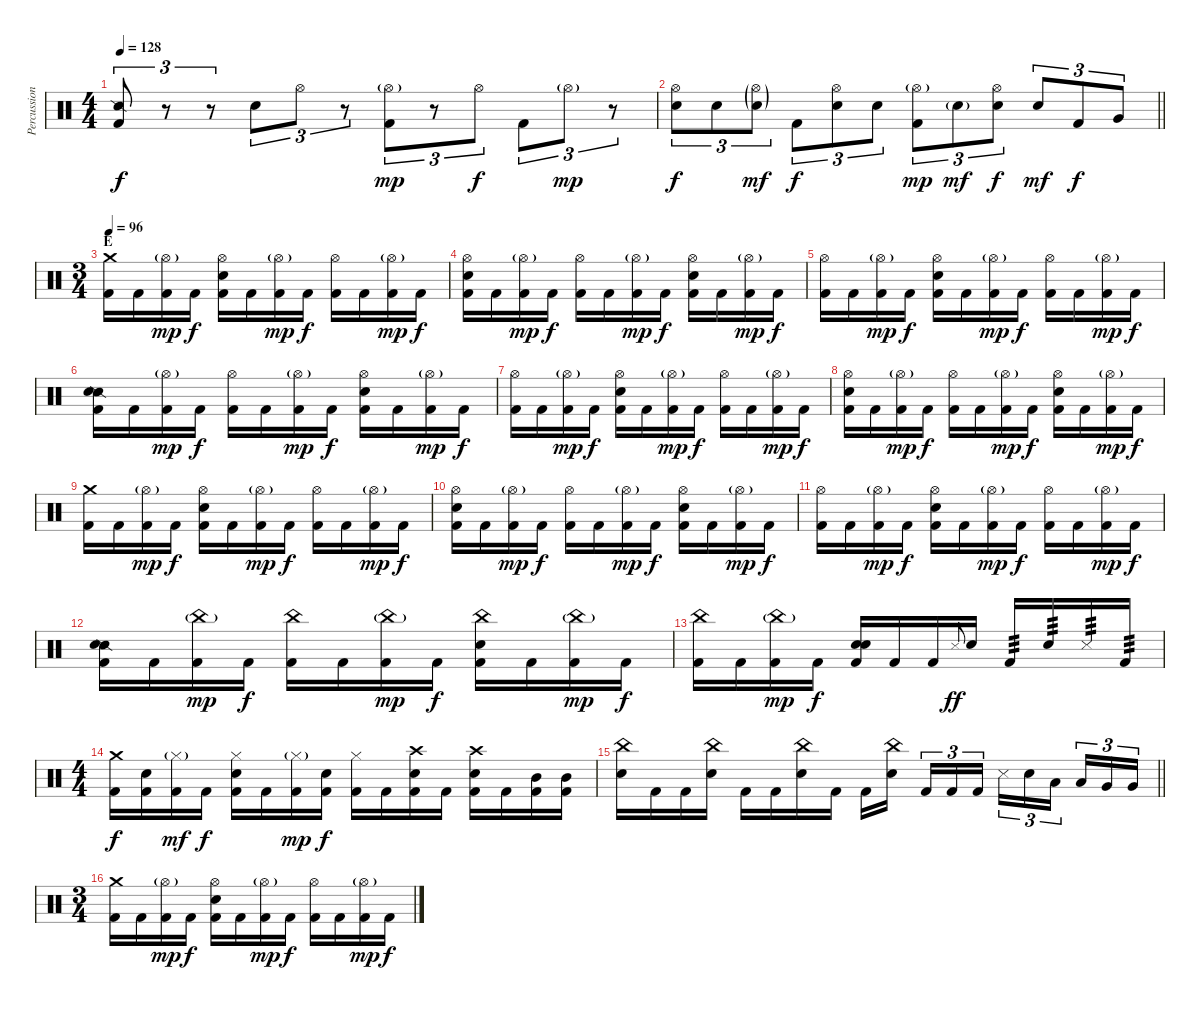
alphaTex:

\track ("Percussion" "Percussion") {instrument percussion}
\staff {score}
\articulation defaults
\ts (4 4)
\tempo 128
\clef neutral
\ks c
("Snare (side stick) 2" "Kick (hit) 2").8{tu (3 2) dy f} r.8{tu (3 2)} r.8{tu (3 2)} "Snare (hit) 2".8{tu (3 2)} "Hi-Hat (open)".8{tu (3 2)} r.8{tu (3 2)} ("Hi-Hat (open)"{g} "Kick (hit) 2").8{tu (3 2) dy mp} r.8{tu (3 2)} "Hi-Hat (open)".8{tu (3 2) dy f} "Kick (hit) 2".8{tu (3 2)} "Hi-Hat (open)"{g}.8{tu (3 2) dy mp} r.8{tu (3 2)} |
\barLineRight lightlight
("Hi-Hat (open)" "Snare (hit) 2").8{tu (3 2) dy f} "Snare (hit) 2".8{tu (3 2)} ("Hi-Hat (open)"{g} "Snare (hit) 2"{g}).8{tu (3 2) dy mf} "Kick (hit) 2".8{tu (3 2) dy f} ("Hi-Hat (open)" "Snare (hit) 2").8{tu (3 2)} "Snare (hit) 2".8{tu (3 2)} ("Hi-Hat (open)"{g} "Kick (hit) 2").8{tu (3 2) dy mp} "Snare (hit) 2"{g}.8{tu (3 2) dy mf} ("Hi-Hat (open)" "Snare (hit) 2").8{tu (3 2) dy f} "Snare (hit) 2".8{tu (3 2) dy mf} "Kick (hit) 2".8{tu (3 2) dy f} "Very Low Tom (hit)".8{tu (3 2)} |
\ts (3 4)
\section ("" "E")
\tempo 96
("Crash medium (hit)" "Kick (hit) 2").16 "Kick (hit) 2".16 ("Hi-Hat (open)"{g} "Kick (hit) 2").16{dy mp} "Kick (hit) 2".16{dy f} ("Hi-Hat (open)" "Snare (hit) 2" "Kick (hit) 2").16 "Kick (hit) 2".16 ("Hi-Hat (open)"{g} "Kick (hit) 2").16{dy mp} "Kick (hit) 2".16{dy f} ("Hi-Hat (open)" "Kick (hit) 2").16 "Kick (hit) 2".16 ("Hi-Hat (open)"{g} "Kick (hit) 2").16{dy mp} "Kick (hit) 2".16{dy f} |
("Hi-Hat (open)" "Snare (hit) 2" "Kick (hit) 2").16 "Kick (hit) 2".16 ("Hi-Hat (open)"{g} "Kick (hit) 2").16{dy mp} "Kick (hit) 2".16{dy f} ("Hi-Hat (open)" "Kick (hit) 2").16 "Kick (hit) 2".16 ("Hi-Hat (open)"{g} "Kick (hit) 2").16{dy mp} "Kick (hit) 2".16{dy f} ("Hi-Hat (open)" "Snare (hit) 2" "Kick (hit) 2").16 "Kick (hit) 2".16 ("Hi-Hat (open)"{g} "Kick (hit) 2").16{dy mp} "Kick (hit) 2".16{dy f} |
("Hi-Hat (open)" "Kick (hit) 2").16 "Kick (hit) 2".16 ("Hi-Hat (open)"{g} "Kick (hit) 2").16{dy mp} "Kick (hit) 2".16{dy f} ("Hi-Hat (open)" "Snare (hit) 2" "Kick (hit) 2").16 "Kick (hit) 2".16 ("Hi-Hat (open)"{g} "Kick (hit) 2").16{dy mp} "Kick (hit) 2".16{dy f} ("Hi-Hat (open)" "Kick (hit) 2").16 "Kick (hit) 2".16 ("Hi-Hat (open)"{g} "Kick (hit) 2").16{dy mp} "Kick (hit) 2".16{dy f} |
("Snare (side stick) 2" "Snare (hit) 2" "Kick (hit) 2").16 "Kick (hit) 2".16 ("Hi-Hat (open)"{g} "Kick (hit) 2").16{dy mp} "Kick (hit) 2".16{dy f} ("Hi-Hat (open)" "Kick (hit) 2").16 "Kick (hit) 2".16 ("Hi-Hat (open)"{g} "Kick (hit) 2").16{dy mp} "Kick (hit) 2".16{dy f} ("Hi-Hat (open)" "Snare (hit) 2" "Kick (hit) 2").16 "Kick (hit) 2".16 ("Hi-Hat (open)"{g} "Kick (hit) 2").16{dy mp} "Kick (hit) 2".16{dy f} |
("Hi-Hat (open)" "Kick (hit) 2").16 "Kick (hit) 2".16 ("Hi-Hat (open)"{g} "Kick (hit) 2").16{dy mp} "Kick (hit) 2".16{dy f} ("Hi-Hat (open)" "Snare (hit) 2" "Kick (hit) 2").16 "Kick (hit) 2".16 ("Hi-Hat (open)"{g} "Kick (hit) 2").16{dy mp} "Kick (hit) 2".16{dy f} ("Hi-Hat (open)" "Kick (hit) 2").16 "Kick (hit) 2".16 ("Hi-Hat (open)"{g} "Kick (hit) 2").16{dy mp} "Kick (hit) 2".16{dy f} |
("Hi-Hat (open)" "Snare (hit) 2" "Kick (hit) 2").16 "Kick (hit) 2".16 ("Hi-Hat (open)"{g} "Kick (hit) 2").16{dy mp} "Kick (hit) 2".16{dy f} ("Hi-Hat (open)" "Kick (hit) 2").16 "Kick (hit) 2".16 ("Hi-Hat (open)"{g} "Kick (hit) 2").16{dy mp} "Kick (hit) 2".16{dy f} ("Hi-Hat (open)" "Snare (hit) 2" "Kick (hit) 2").16 "Kick (hit) 2".16 ("Hi-Hat (open)"{g} "Kick (hit) 2").16{dy mp} "Kick (hit) 2".16{dy f} |
("Crash medium (hit)" "Kick (hit) 2").16 "Kick (hit) 2".16 ("Hi-Hat (open)"{g} "Kick (hit) 2").16{dy mp} "Kick (hit) 2".16{dy f} ("Hi-Hat (open)" "Snare (hit) 2" "Kick (hit) 2").16 "Kick (hit) 2".16 ("Hi-Hat (open)"{g} "Kick (hit) 2").16{dy mp} "Kick (hit) 2".16{dy f} ("Hi-Hat (open)" "Kick (hit) 2").16 "Kick (hit) 2".16 ("Hi-Hat (open)"{g} "Kick (hit) 2").16{dy mp} "Kick (hit) 2".16{dy f} |
("Hi-Hat (open)" "Snare (hit) 2" "Kick (hit) 2").16 "Kick (hit) 2".16 ("Hi-Hat (open)"{g} "Kick (hit) 2").16{dy mp} "Kick (hit) 2".16{dy f} ("Hi-Hat (open)" "Kick (hit) 2").16 "Kick (hit) 2".16 ("Hi-Hat (open)"{g} "Kick (hit) 2").16{dy mp} "Kick (hit) 2".16{dy f} ("Hi-Hat (open)" "Snare (hit) 2" "Kick (hit) 2").16 "Kick (hit) 2".16 ("Hi-Hat (open)"{g} "Kick (hit) 2").16{dy mp} "Kick (hit) 2".16{dy f} |
("Hi-Hat (open)" "Kick (hit) 2").16 "Kick (hit) 2".16 ("Hi-Hat (open)"{g} "Kick (hit) 2").16{dy mp} "Kick (hit) 2".16{dy f} ("Hi-Hat (open)" "Snare (hit) 2" "Kick (hit) 2").16 "Kick (hit) 2".16 ("Hi-Hat (open)"{g} "Kick (hit) 2").16{dy mp} "Kick (hit) 2".16{dy f} ("Hi-Hat (open)" "Kick (hit) 2").16 "Kick (hit) 2".16 ("Hi-Hat (open)"{g} "Kick (hit) 2").16{dy mp} "Kick (hit) 2".16{dy f} |
("Snare (side stick) 2" "Snare (hit) 2" "Kick (hit) 2").16 "Kick (hit) 2".16 ("China (hit)"{g} "Kick (hit) 2").16{dy mp} "Kick (hit) 2".16{dy f} ("China (hit)" "Kick (hit) 2").16 "Kick (hit) 2".16 ("China (hit)"{g} "Kick (hit) 2").16{dy mp} "Kick (hit) 2".16{dy f} ("China (hit)" "Snare (hit) 2" "Kick (hit) 2").16 "Kick (hit) 2".16 ("China (hit)"{g} "Kick (hit) 2").16{dy mp} "Kick (hit) 2".16{dy f} |
("China (hit)" "Kick (hit) 2").16 "Kick (hit) 2".16 ("China (hit)"{g} "Kick (hit) 2").16{dy mp} "Kick (hit) 2".16{dy f} ("Snare (hit)" "Snare (hit) 2" "Kick (hit) 2").16 "Kick (hit) 2".16 "Kick (hit) 2".16 "Metronome (hit)".8{gr onbeat dy ff} "Snare (hit) 2".16 "Kick (hit) 2".16{tp 3} "Snare (hit) 2".16{tp 3} "Metronome (hit)".16{tp 3} "Kick (hit) 2".16{tp 3} |
\ts (4 4)
("Crash medium (hit)" "Kick (hit) 2").16{dy f} ("Snare (hit) 2" "Kick (hit) 2").16 ("Hi-Hat (closed)"{g} "Kick (hit) 2").16{dy mf} "Kick (hit) 2".16{dy f} ("Hi-Hat (closed)" "Snare (hit) 2" "Kick (hit) 2").16 "Kick (hit) 2".16 ("Hi-Hat (closed)"{g} "Kick (hit) 2").16{dy mp} ("Snare (hit) 2" "Kick (hit) 2").16{dy f} ("Hi-Hat (closed)" "Kick (hit) 2").16 "Kick (hit) 2".16 ("Crash high (hit)" "Snare (hit) 2" "Kick (hit) 2").16 "Kick (hit) 2".16 ("Crash high (hit)" "Snare (hit) 2" "Kick (hit) 2").16 "Kick (hit) 2".16 ("Mid Tom (hit)" "Kick (hit) 2").16 ("Mid Tom (hit)" "Kick (hit) 2").16 |
\barLineRight lightlight
("China (hit)" "Snare (hit) 2").16 "Kick (hit) 2".16 "Kick (hit) 2".16 ("China (hit)" "Snare (hit) 2").16 "Kick (hit) 2".16 "Kick (hit) 2".16 ("China (hit)" "Snare (hit) 2").16 "Kick (hit) 2".16 "Kick (hit) 2".16 ("China (hit)" "Snare (hit) 2").16{beam splitsecondary} "Kick (hit) 2".16{tu (3 2)} "Kick (hit) 2".16{tu (3 2)} "Kick (hit) 2".16{tu (3 2)} "Metronome (hit)".16{tu (3 2)} "Snare (hit) 2".16{tu (3 2)} "Low Tom (hit)".16{tu (3 2) beam splitsecondary} "Low Tom (hit)".16{tu (3 2)} "Very Low Tom (hit)".16{tu (3 2)} "Very Low Tom (hit)".16{tu (3 2)} |
\ts (3 4)
("Crash medium (hit)" "Kick (hit) 2").16 "Kick (hit) 2".16 ("Hi-Hat (open)"{g} "Kick (hit) 2").16{dy mp} "Kick (hit) 2".16{dy f} ("Hi-Hat (open)" "Snare (hit) 2" "Kick (hit) 2").16 "Kick (hit) 2".16 ("Hi-Hat (open)"{g} "Kick (hit) 2").16{dy mp} "Kick (hit) 2".16{dy f} ("Hi-Hat (open)" "Kick (hit) 2").16 "Kick (hit) 2".16 ("Hi-Hat (open)"{g} "Kick (hit) 2").16{dy mp} "Kick (hit) 2".16{dy f}
